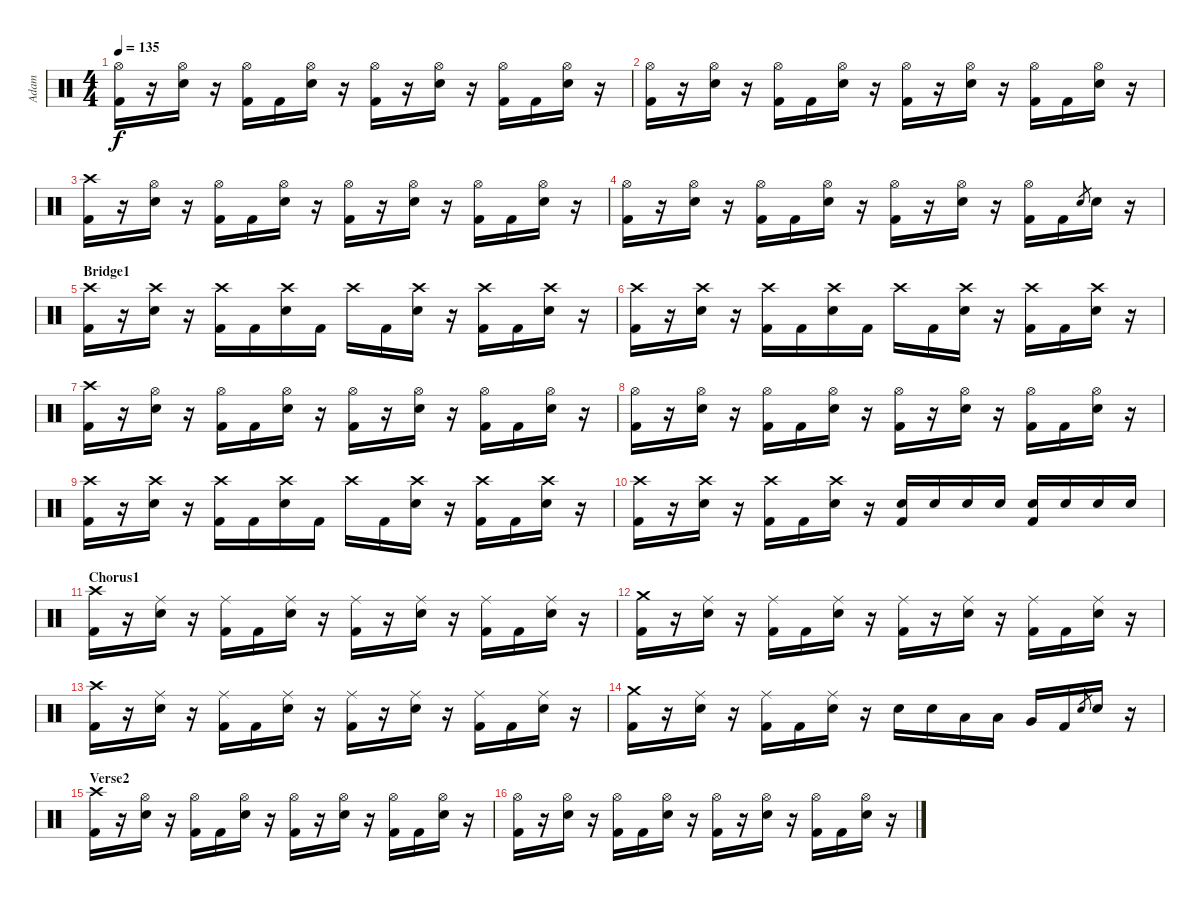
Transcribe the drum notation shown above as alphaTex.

\track ("Adam" "Adam") {instrument percussion}
\staff {score}
\articulation defaults
\ts (4 4)
\tempo 135
\clef neutral
\ks c
("Hi-Hat (open)" "Kick (hit) 2").16{dy f} r.16 ("Hi-Hat (open)" "Electric Snare (hit)").16 r.16 ("Hi-Hat (open)" "Kick (hit) 2").16 "Kick (hit) 2".16 ("Hi-Hat (open)" "Electric Snare (hit)").16 r.16 ("Hi-Hat (open)" "Kick (hit) 2").16 r.16 ("Hi-Hat (open)" "Electric Snare (hit)").16 r.16 ("Hi-Hat (open)" "Kick (hit) 2").16 "Kick (hit) 2".16 ("Hi-Hat (open)" "Electric Snare (hit)").16 r.16 |
("Hi-Hat (open)" "Kick (hit) 2").16 r.16 ("Hi-Hat (open)" "Electric Snare (hit)").16 r.16 ("Hi-Hat (open)" "Kick (hit) 2").16 "Kick (hit) 2".16 ("Hi-Hat (open)" "Electric Snare (hit)").16 r.16 ("Hi-Hat (open)" "Kick (hit) 2").16 r.16 ("Hi-Hat (open)" "Electric Snare (hit)").16 r.16 ("Hi-Hat (open)" "Kick (hit) 2").16 "Kick (hit) 2".16 ("Hi-Hat (open)" "Electric Snare (hit)").16 r.16 |
("Crash high (hit)" "Kick (hit) 2").16 r.16 ("Hi-Hat (open)" "Electric Snare (hit)").16 r.16 ("Hi-Hat (open)" "Kick (hit) 2").16 "Kick (hit) 2".16 ("Hi-Hat (open)" "Electric Snare (hit)").16 r.16 ("Hi-Hat (open)" "Kick (hit) 2").16 r.16 ("Hi-Hat (open)" "Electric Snare (hit)").16 r.16 ("Hi-Hat (open)" "Kick (hit) 2").16 "Kick (hit) 2".16 ("Hi-Hat (open)" "Electric Snare (hit)").16 r.16 |
("Hi-Hat (open)" "Kick (hit) 2").16 r.16 ("Hi-Hat (open)" "Electric Snare (hit)").16 r.16 ("Hi-Hat (open)" "Kick (hit) 2").16 "Kick (hit) 2".16 ("Hi-Hat (open)" "Electric Snare (hit)").16 r.16 ("Hi-Hat (open)" "Kick (hit) 2").16 r.16 ("Hi-Hat (open)" "Electric Snare (hit)").16 r.16 ("Hi-Hat (open)" "Kick (hit) 2").16 "Kick (hit) 2".16 "Electric Snare (hit)".8{gr} "Electric Snare (hit)".16 r.16 |
\section ("" "Bridge1")
("Crash high (hit)" "Kick (hit) 2").16 r.16 ("Crash high (hit)" "Electric Snare (hit)").16 r.16 ("Crash high (hit)" "Kick (hit) 2").16 "Kick (hit) 2".16 ("Crash high (hit)" "Electric Snare (hit)").16 "Kick (hit) 2".16 "Crash high (hit)".16 "Kick (hit) 2".16 ("Crash high (hit)" "Electric Snare (hit)").16 r.16 ("Crash high (hit)" "Kick (hit) 2").16 "Kick (hit) 2".16 ("Crash high (hit)" "Electric Snare (hit)").16 r.16 |
("Crash high (hit)" "Kick (hit) 2").16 r.16 ("Crash high (hit)" "Electric Snare (hit)").16 r.16 ("Crash high (hit)" "Kick (hit) 2").16 "Kick (hit) 2".16 ("Crash high (hit)" "Electric Snare (hit)").16 "Kick (hit) 2".16 "Crash high (hit)".16 "Kick (hit) 2".16 ("Crash high (hit)" "Electric Snare (hit)").16 r.16 ("Crash high (hit)" "Kick (hit) 2").16 "Kick (hit) 2".16 ("Crash high (hit)" "Electric Snare (hit)").16 r.16 |
("Crash high (hit)" "Kick (hit) 2").16 r.16 ("Hi-Hat (open)" "Electric Snare (hit)").16 r.16 ("Hi-Hat (open)" "Kick (hit) 2").16 "Kick (hit) 2".16 ("Hi-Hat (open)" "Electric Snare (hit)").16 r.16 ("Hi-Hat (open)" "Kick (hit) 2").16 r.16 ("Hi-Hat (open)" "Electric Snare (hit)").16 r.16 ("Hi-Hat (open)" "Kick (hit) 2").16 "Kick (hit) 2".16 ("Hi-Hat (open)" "Electric Snare (hit)").16 r.16 |
("Hi-Hat (open)" "Kick (hit) 2").16 r.16 ("Hi-Hat (open)" "Electric Snare (hit)").16 r.16 ("Hi-Hat (open)" "Kick (hit) 2").16 "Kick (hit) 2".16 ("Hi-Hat (open)" "Electric Snare (hit)").16 r.16 ("Hi-Hat (open)" "Kick (hit) 2").16 r.16 ("Hi-Hat (open)" "Electric Snare (hit)").16 r.16 ("Hi-Hat (open)" "Kick (hit) 2").16 "Kick (hit) 2".16 ("Hi-Hat (open)" "Electric Snare (hit)").16 r.16 |
("Crash high (hit)" "Kick (hit) 2").16 r.16 ("Crash high (hit)" "Electric Snare (hit)").16 r.16 ("Crash high (hit)" "Kick (hit) 2").16 "Kick (hit) 2".16 ("Crash high (hit)" "Electric Snare (hit)").16 "Kick (hit) 2".16 "Crash high (hit)".16 "Kick (hit) 2".16 ("Crash high (hit)" "Electric Snare (hit)").16 r.16 ("Crash high (hit)" "Kick (hit) 2").16 "Kick (hit) 2".16 ("Crash high (hit)" "Electric Snare (hit)").16 r.16 |
("Crash high (hit)" "Kick (hit) 2").16 r.16 ("Crash high (hit)" "Electric Snare (hit)").16 r.16 ("Crash high (hit)" "Kick (hit) 2").16 "Kick (hit) 2".16 ("Crash high (hit)" "Electric Snare (hit)").16 r.16 ("Electric Snare (hit)" "Kick (hit) 2").16 "Electric Snare (hit)".16 "Electric Snare (hit)".16 "Electric Snare (hit)".16 ("Electric Snare (hit)" "Kick (hit) 2").16 "Electric Snare (hit)".16 "Electric Snare (hit)".16 "Electric Snare (hit)".16 |
\section ("" "Chorus1")
("Crash high (hit)" "Kick (hit) 2").16 r.16 ("Ride (middle)" "Electric Snare (hit)").16 r.16 ("Ride (middle)" "Kick (hit) 2").16 "Kick (hit) 2".16 ("Ride (middle)" "Electric Snare (hit)").16 r.16 ("Ride (middle)" "Kick (hit) 2").16 r.16 ("Ride (middle)" "Electric Snare (hit)").16 r.16 ("Ride (middle)" "Kick (hit) 2").16 "Kick (hit) 2".16 ("Ride (middle)" "Electric Snare (hit)").16 r.16 |
("Crash medium (hit)" "Kick (hit) 2").16 r.16 ("Ride (middle)" "Electric Snare (hit)").16 r.16 ("Ride (middle)" "Kick (hit) 2").16 "Kick (hit) 2".16 ("Ride (middle)" "Electric Snare (hit)").16 r.16 ("Ride (middle)" "Kick (hit) 2").16 r.16 ("Ride (middle)" "Electric Snare (hit)").16 r.16 ("Ride (middle)" "Kick (hit) 2").16 "Kick (hit) 2".16 ("Ride (middle)" "Electric Snare (hit)").16 r.16 |
("Crash high (hit)" "Kick (hit) 2").16 r.16 ("Ride (middle)" "Electric Snare (hit)").16 r.16 ("Ride (middle)" "Kick (hit) 2").16 "Kick (hit) 2".16 ("Ride (middle)" "Electric Snare (hit)").16 r.16 ("Ride (middle)" "Kick (hit) 2").16 r.16 ("Ride (middle)" "Electric Snare (hit)").16 r.16 ("Ride (middle)" "Kick (hit) 2").16 "Kick (hit) 2".16 ("Ride (middle)" "Electric Snare (hit)").16 r.16 |
("Crash medium (hit)" "Kick (hit) 2").16 r.16 ("Ride (middle)" "Electric Snare (hit)").16 r.16 ("Ride (middle)" "Kick (hit) 2").16 "Kick (hit) 2".16 ("Ride (middle)" "Electric Snare (hit)").16 r.16 "Electric Snare (hit)".16 "Electric Snare (hit)".16 "Low Tom (hit)".16 "Low Tom (hit)".16 "Very Low Tom (hit)".16 "Kick (hit) 2".16 "Electric Snare (hit)".8{gr} "Electric Snare (hit)".16 r.16 |
\section ("" "Verse2")
("Crash high (hit)" "Kick (hit) 2").16 r.16 ("Hi-Hat (open)" "Electric Snare (hit)").16 r.16 ("Hi-Hat (open)" "Kick (hit) 2").16 "Kick (hit) 2".16 ("Hi-Hat (open)" "Electric Snare (hit)").16 r.16 ("Hi-Hat (open)" "Kick (hit) 2").16 r.16 ("Hi-Hat (open)" "Electric Snare (hit)").16 r.16 ("Hi-Hat (open)" "Kick (hit) 2").16 "Kick (hit) 2".16 ("Hi-Hat (open)" "Electric Snare (hit)").16 r.16 |
("Hi-Hat (open)" "Kick (hit) 2").16 r.16 ("Hi-Hat (open)" "Electric Snare (hit)").16 r.16 ("Hi-Hat (open)" "Kick (hit) 2").16 "Kick (hit) 2".16 ("Hi-Hat (open)" "Electric Snare (hit)").16 r.16 ("Hi-Hat (open)" "Kick (hit) 2").16 r.16 ("Hi-Hat (open)" "Electric Snare (hit)").16 r.16 ("Hi-Hat (open)" "Kick (hit) 2").16 "Kick (hit) 2".16 ("Hi-Hat (open)" "Electric Snare (hit)").16 r.16
